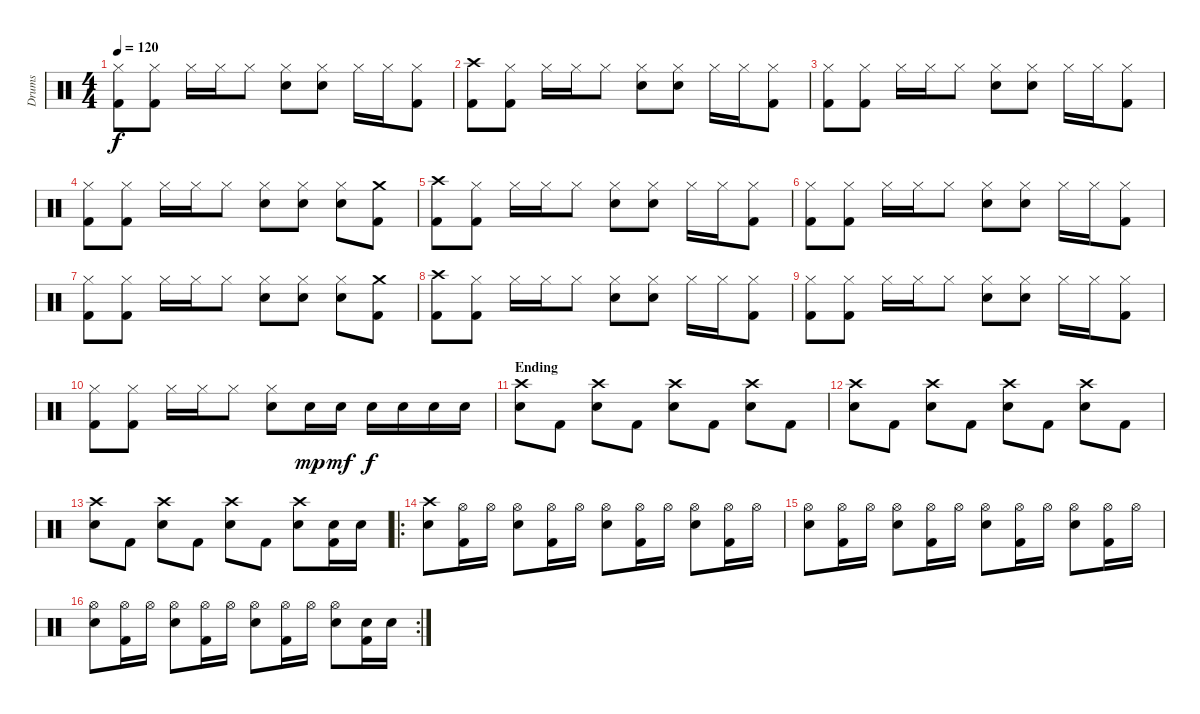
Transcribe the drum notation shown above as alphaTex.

\track ("Drums" "Drums") {instrument percussion}
\staff {score}
\articulation defaults
\ts (4 4)
\tempo 120
\clef neutral
\ks c
("Hi-Hat (closed)" "Kick (hit) 2").8{dy f} ("Hi-Hat (closed)" "Kick (hit) 2").8 "Hi-Hat (closed)".16 "Hi-Hat (closed)".16 "Hi-Hat (closed)".8 ("Hi-Hat (closed)" "Snare (hit) 2").8 ("Hi-Hat (closed)" "Snare (hit) 2").8 "Hi-Hat (closed)".16 "Hi-Hat (closed)".16 ("Hi-Hat (closed)" "Kick (hit) 2").8 |
("Crash high (hit)" "Kick (hit) 2").8 ("Hi-Hat (closed)" "Kick (hit) 2").8 "Hi-Hat (closed)".16 "Hi-Hat (closed)".16 "Hi-Hat (closed)".8 ("Hi-Hat (closed)" "Snare (hit) 2").8 ("Hi-Hat (closed)" "Snare (hit) 2").8 "Hi-Hat (closed)".16 "Hi-Hat (closed)".16 ("Hi-Hat (closed)" "Kick (hit) 2").8 |
("Hi-Hat (closed)" "Kick (hit) 2").8 ("Hi-Hat (closed)" "Kick (hit) 2").8 "Hi-Hat (closed)".16 "Hi-Hat (closed)".16 "Hi-Hat (closed)".8 ("Hi-Hat (closed)" "Snare (hit) 2").8 ("Hi-Hat (closed)" "Snare (hit) 2").8 "Hi-Hat (closed)".16 "Hi-Hat (closed)".16 ("Hi-Hat (closed)" "Kick (hit) 2").8 |
("Hi-Hat (closed)" "Kick (hit) 2").8 ("Hi-Hat (closed)" "Kick (hit) 2").8 "Hi-Hat (closed)".16 "Hi-Hat (closed)".16 "Hi-Hat (closed)".8 ("Hi-Hat (closed)" "Snare (hit) 2").8 ("Hi-Hat (closed)" "Snare (hit) 2").8 ("Hi-Hat (closed)" "Snare (hit) 2").8 ("Crash medium (hit)" "Kick (hit) 2").8 |
("Crash high (hit)" "Kick (hit) 2").8 ("Hi-Hat (closed)" "Kick (hit) 2").8 "Hi-Hat (closed)".16 "Hi-Hat (closed)".16 "Hi-Hat (closed)".8 ("Hi-Hat (closed)" "Snare (hit) 2").8 ("Hi-Hat (closed)" "Snare (hit) 2").8 "Hi-Hat (closed)".16 "Hi-Hat (closed)".16 ("Hi-Hat (closed)" "Kick (hit) 2").8 |
("Hi-Hat (closed)" "Kick (hit) 2").8 ("Hi-Hat (closed)" "Kick (hit) 2").8 "Hi-Hat (closed)".16 "Hi-Hat (closed)".16 "Hi-Hat (closed)".8 ("Hi-Hat (closed)" "Snare (hit) 2").8 ("Hi-Hat (closed)" "Snare (hit) 2").8 "Hi-Hat (closed)".16 "Hi-Hat (closed)".16 ("Hi-Hat (closed)" "Kick (hit) 2").8 |
("Hi-Hat (closed)" "Kick (hit) 2").8 ("Hi-Hat (closed)" "Kick (hit) 2").8 "Hi-Hat (closed)".16 "Hi-Hat (closed)".16 "Hi-Hat (closed)".8 ("Hi-Hat (closed)" "Snare (hit) 2").8 ("Hi-Hat (closed)" "Snare (hit) 2").8 ("Hi-Hat (closed)" "Snare (hit) 2").8 ("Crash medium (hit)" "Kick (hit) 2").8 |
("Crash high (hit)" "Kick (hit) 2").8 ("Hi-Hat (closed)" "Kick (hit) 2").8 "Hi-Hat (closed)".16 "Hi-Hat (closed)".16 "Hi-Hat (closed)".8 ("Hi-Hat (closed)" "Snare (hit) 2").8 ("Hi-Hat (closed)" "Snare (hit) 2").8 "Hi-Hat (closed)".16 "Hi-Hat (closed)".16 ("Hi-Hat (closed)" "Kick (hit) 2").8 |
("Hi-Hat (closed)" "Kick (hit) 2").8 ("Hi-Hat (closed)" "Kick (hit) 2").8 "Hi-Hat (closed)".16 "Hi-Hat (closed)".16 "Hi-Hat (closed)".8 ("Hi-Hat (closed)" "Snare (hit) 2").8 ("Hi-Hat (closed)" "Snare (hit) 2").8 "Hi-Hat (closed)".16 "Hi-Hat (closed)".16 ("Hi-Hat (closed)" "Kick (hit) 2").8 |
("Hi-Hat (closed)" "Kick (hit) 2").8 ("Hi-Hat (closed)" "Kick (hit) 2").8 "Hi-Hat (closed)".16 "Hi-Hat (closed)".16 "Hi-Hat (closed)".8 ("Hi-Hat (closed)" "Snare (hit) 2").8 "Snare (hit) 2".16{dy mp} "Snare (hit) 2".16{dy mf} "Snare (hit) 2".16{dy f} "Snare (hit) 2".16 "Snare (hit) 2".16 "Snare (hit) 2".16 |
\section ("" "Ending")
("Crash high (hit)" "Snare (hit) 2").8 "Kick (hit) 2".8 ("Crash high (hit)" "Snare (hit) 2").8 "Kick (hit) 2".8 ("Crash high (hit)" "Snare (hit) 2").8 "Kick (hit) 2".8 ("Crash high (hit)" "Snare (hit) 2").8 "Kick (hit) 2".8 |
("Crash high (hit)" "Snare (hit) 2").8 "Kick (hit) 2".8 ("Crash high (hit)" "Snare (hit) 2").8 "Kick (hit) 2".8 ("Crash high (hit)" "Snare (hit) 2").8 "Kick (hit) 2".8 ("Crash high (hit)" "Snare (hit) 2").8 "Kick (hit) 2".8 |
("Crash high (hit)" "Snare (hit) 2").8 "Kick (hit) 2".8 ("Crash high (hit)" "Snare (hit) 2").8 "Kick (hit) 2".8 ("Crash high (hit)" "Snare (hit) 2").8 "Kick (hit) 2".8 ("Crash high (hit)" "Snare (hit) 2").8 ("Snare (hit) 2" "Kick (hit) 2").16 "Snare (hit) 2".16 |
\ro
("Crash high (hit)" "Snare (hit) 2").8 ("Hi-Hat (open)" "Kick (hit) 2").16 "Hi-Hat (open)".16 ("Hi-Hat (open)" "Snare (hit) 2").8 ("Hi-Hat (open)" "Kick (hit) 2").16 "Hi-Hat (open)".16 ("Hi-Hat (open)" "Snare (hit) 2").8 ("Hi-Hat (open)" "Kick (hit) 2").16 "Hi-Hat (open)".16 ("Hi-Hat (open)" "Snare (hit) 2").8 ("Hi-Hat (open)" "Kick (hit) 2").16 "Hi-Hat (open)".16 |
("Hi-Hat (open)" "Snare (hit) 2").8 ("Hi-Hat (open)" "Kick (hit) 2").16 "Hi-Hat (open)".16 ("Hi-Hat (open)" "Snare (hit) 2").8 ("Hi-Hat (open)" "Kick (hit) 2").16 "Hi-Hat (open)".16 ("Hi-Hat (open)" "Snare (hit) 2").8 ("Hi-Hat (open)" "Kick (hit) 2").16 "Hi-Hat (open)".16 ("Hi-Hat (open)" "Snare (hit) 2").8 ("Hi-Hat (open)" "Kick (hit) 2").16 "Hi-Hat (open)".16 |
\rc 2
("Hi-Hat (open)" "Snare (hit) 2").8 ("Hi-Hat (open)" "Kick (hit) 2").16 "Hi-Hat (open)".16 ("Hi-Hat (open)" "Snare (hit) 2").8 ("Hi-Hat (open)" "Kick (hit) 2").16 "Hi-Hat (open)".16 ("Hi-Hat (open)" "Snare (hit) 2").8 ("Hi-Hat (open)" "Kick (hit) 2").16 "Hi-Hat (open)".16 ("Hi-Hat (open)" "Snare (hit) 2").8 ("Snare (hit) 2" "Kick (hit) 2").16 "Snare (hit) 2".16
